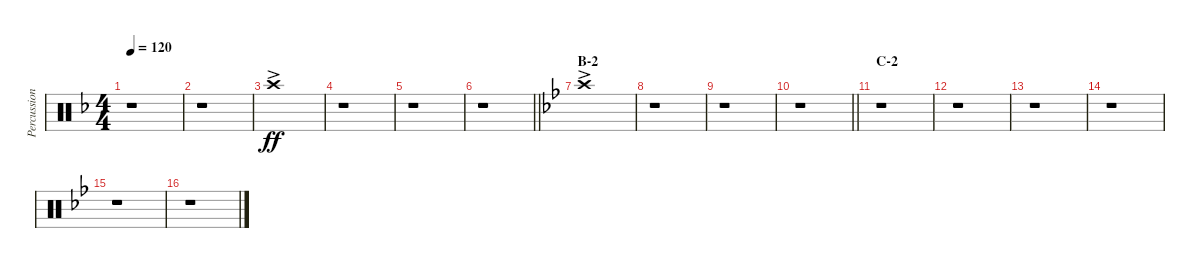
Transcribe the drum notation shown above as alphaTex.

\track ("Percussion" "Percussion") {instrument percussion}
\staff {score}
\articulation defaults
\ts (4 4)
\tempo 120
\clef neutral
\ks f
r.1{dy ff} |
r.1 |
"Crash high (hit)"{ac}.1 |
r.1 |
r.1 |
\barLineRight lightlight
r.1 |
\section ("" "B-2")
\ks bb "Crash high (hit)"{ac}.1
|
r.1 |
r.1 |
\barLineRight lightlight
r.1 |
\section ("" "C-2")
r.1 |
r.1 |
r.1 |
r.1 |
r.1 |
r.1
